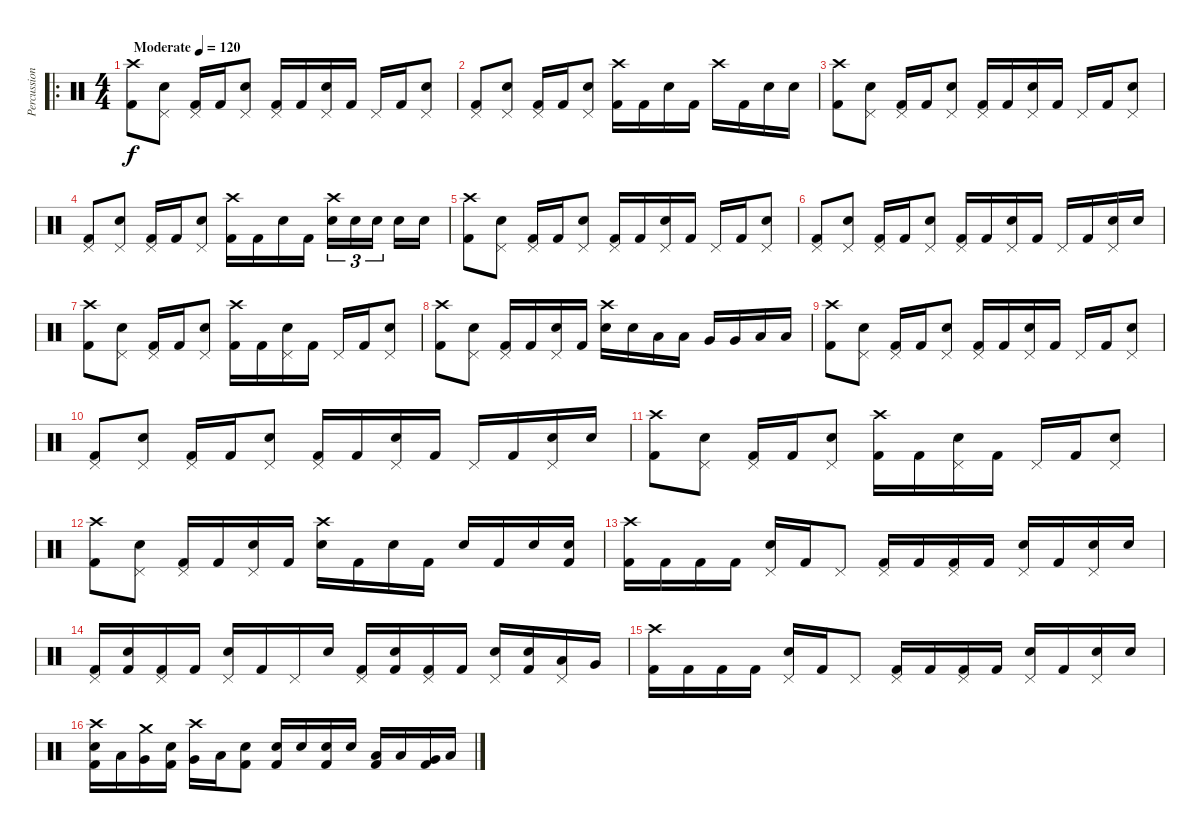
\track ("Percussion" "Percussion") {instrument percussion}
\staff {score}
\articulation defaults
\ro
\ts (4 4)
\tempo (120 "Moderate")
\clef neutral
\ks c
("Crash high (hit)" "Kick (hit) 2").8{dy f} ("Pedal Hi-Hat (hit)" "Electric Snare (hit)").8 ("Pedal Hi-Hat (hit)" "Kick (hit) 2").16 "Kick (hit) 2".16 ("Pedal Hi-Hat (hit)" "Electric Snare (hit)").8 ("Pedal Hi-Hat (hit)" "Kick (hit) 2").16 "Kick (hit) 2".16 ("Pedal Hi-Hat (hit)" "Electric Snare (hit)").16 "Kick (hit) 2".16 "Pedal Hi-Hat (hit)".16 "Kick (hit) 2".16 ("Pedal Hi-Hat (hit)" "Electric Snare (hit)").8 |
("Pedal Hi-Hat (hit)" "Kick (hit) 2").8 ("Pedal Hi-Hat (hit)" "Electric Snare (hit)").8 ("Pedal Hi-Hat (hit)" "Kick (hit) 2").16 "Kick (hit) 2".16 ("Pedal Hi-Hat (hit)" "Electric Snare (hit)").8 ("Crash high (hit)" "Kick (hit) 2").16 "Kick (hit) 2".16 "Electric Snare (hit)".16 "Kick (hit) 2".16 "Crash high (hit)".16 "Kick (hit) 2".16 "Electric Snare (hit)".16 "Electric Snare (hit)".16 |
("Crash high (hit)" "Kick (hit) 2").8 ("Pedal Hi-Hat (hit)" "Electric Snare (hit)").8 ("Pedal Hi-Hat (hit)" "Kick (hit) 2").16 "Kick (hit) 2".16 ("Pedal Hi-Hat (hit)" "Electric Snare (hit)").8 ("Pedal Hi-Hat (hit)" "Kick (hit) 2").16 "Kick (hit) 2".16 ("Pedal Hi-Hat (hit)" "Electric Snare (hit)").16 "Kick (hit) 2".16 "Pedal Hi-Hat (hit)".16 "Kick (hit) 2".16 ("Pedal Hi-Hat (hit)" "Electric Snare (hit)").8 |
("Pedal Hi-Hat (hit)" "Kick (hit) 2").8 ("Pedal Hi-Hat (hit)" "Electric Snare (hit)").8 ("Pedal Hi-Hat (hit)" "Kick (hit) 2").16 "Kick (hit) 2".16 ("Pedal Hi-Hat (hit)" "Electric Snare (hit)").8 ("Crash high (hit)" "Kick (hit) 2").16 "Kick (hit) 2".16 "Electric Snare (hit)".16 "Kick (hit) 2".16 ("Crash high (hit)" "Electric Snare (hit)").16{tu (3 2)} "Electric Snare (hit)".16{tu (3 2)} "Electric Snare (hit)".16{tu (3 2) beam splitsecondary} "Electric Snare (hit)".16 "Electric Snare (hit)".16 |
("Crash high (hit)" "Kick (hit) 2").8 ("Pedal Hi-Hat (hit)" "Electric Snare (hit)").8 ("Pedal Hi-Hat (hit)" "Kick (hit) 2").16 "Kick (hit) 2".16 ("Pedal Hi-Hat (hit)" "Electric Snare (hit)").8 ("Pedal Hi-Hat (hit)" "Kick (hit) 2").16 "Kick (hit) 2".16 ("Pedal Hi-Hat (hit)" "Electric Snare (hit)").16 "Kick (hit) 2".16 "Pedal Hi-Hat (hit)".16 "Kick (hit) 2".16 ("Pedal Hi-Hat (hit)" "Electric Snare (hit)").8 |
("Pedal Hi-Hat (hit)" "Kick (hit) 2").8 ("Pedal Hi-Hat (hit)" "Electric Snare (hit)").8 ("Pedal Hi-Hat (hit)" "Kick (hit) 2").16 "Kick (hit) 2".16 ("Pedal Hi-Hat (hit)" "Electric Snare (hit)").8 ("Pedal Hi-Hat (hit)" "Kick (hit) 2").16 "Kick (hit) 2".16 ("Pedal Hi-Hat (hit)" "Electric Snare (hit)").16 "Kick (hit) 2".16 "Pedal Hi-Hat (hit)".16 "Kick (hit) 2".16 ("Pedal Hi-Hat (hit)" "Electric Snare (hit)").16 "Electric Snare (hit)".16 |
("Crash high (hit)" "Kick (hit) 2").8 ("Pedal Hi-Hat (hit)" "Electric Snare (hit)").8 ("Pedal Hi-Hat (hit)" "Kick (hit) 2").16 "Kick (hit) 2".16 ("Pedal Hi-Hat (hit)" "Electric Snare (hit)").8 ("Crash high (hit)" "Kick (hit) 2").16 "Kick (hit) 2".16 ("Pedal Hi-Hat (hit)" "Electric Snare (hit)").16 "Kick (hit) 2".16 "Pedal Hi-Hat (hit)".16 "Kick (hit) 2".16 ("Pedal Hi-Hat (hit)" "Electric Snare (hit)").8 |
("Crash high (hit)" "Kick (hit) 2").8 ("Pedal Hi-Hat (hit)" "Electric Snare (hit)").8 ("Pedal Hi-Hat (hit)" "Kick (hit) 2").16 "Kick (hit) 2".16 ("Pedal Hi-Hat (hit)" "Electric Snare (hit)").16 "Kick (hit) 2".16 ("Crash high (hit)" "Electric Snare (hit)").16 "Electric Snare (hit)".16 "Low Tom (hit)".16 "Low Tom (hit)".16 "Very Low Tom (hit)".16 "Very Low Tom (hit)".16 "Low Floor Tom (hit)".16 "Low Floor Tom (hit)".16 |
("Crash high (hit)" "Kick (hit) 2").8 ("Pedal Hi-Hat (hit)" "Electric Snare (hit)").8 ("Pedal Hi-Hat (hit)" "Kick (hit) 2").16 "Kick (hit) 2".16 ("Pedal Hi-Hat (hit)" "Electric Snare (hit)").8 ("Pedal Hi-Hat (hit)" "Kick (hit) 2").16 "Kick (hit) 2".16 ("Pedal Hi-Hat (hit)" "Electric Snare (hit)").16 "Kick (hit) 2".16 "Pedal Hi-Hat (hit)".16 "Kick (hit) 2".16 ("Pedal Hi-Hat (hit)" "Electric Snare (hit)").8 |
("Pedal Hi-Hat (hit)" "Kick (hit) 2").8 ("Pedal Hi-Hat (hit)" "Electric Snare (hit)").8 ("Pedal Hi-Hat (hit)" "Kick (hit) 2").16 "Kick (hit) 2".16 ("Pedal Hi-Hat (hit)" "Electric Snare (hit)").8 ("Pedal Hi-Hat (hit)" "Kick (hit) 2").16 "Kick (hit) 2".16 ("Pedal Hi-Hat (hit)" "Electric Snare (hit)").16 "Kick (hit) 2".16 "Pedal Hi-Hat (hit)".16 "Kick (hit) 2".16 ("Pedal Hi-Hat (hit)" "Electric Snare (hit)").16 "Electric Snare (hit)".16 |
("Crash high (hit)" "Kick (hit) 2").8 ("Pedal Hi-Hat (hit)" "Electric Snare (hit)").8 ("Pedal Hi-Hat (hit)" "Kick (hit) 2").16 "Kick (hit) 2".16 ("Pedal Hi-Hat (hit)" "Electric Snare (hit)").8 ("Crash high (hit)" "Kick (hit) 2").16 "Kick (hit) 2".16 ("Pedal Hi-Hat (hit)" "Electric Snare (hit)").16 "Kick (hit) 2".16 "Pedal Hi-Hat (hit)".16 "Kick (hit) 2".16 ("Pedal Hi-Hat (hit)" "Electric Snare (hit)").8 |
("Crash high (hit)" "Kick (hit) 2").8 ("Pedal Hi-Hat (hit)" "Electric Snare (hit)").8 ("Pedal Hi-Hat (hit)" "Kick (hit) 2").16 "Kick (hit) 2".16 ("Pedal Hi-Hat (hit)" "Electric Snare (hit)").16 "Kick (hit) 2".16 ("Crash high (hit)" "Electric Snare (hit)").16 "Kick (hit) 2".16 "Electric Snare (hit)".16 "Kick (hit) 2".16 "Electric Snare (hit)".16 "Kick (hit) 2".16 "Electric Snare (hit)".16 ("Electric Snare (hit)" "Kick (hit) 2").16 |
("Crash high (hit)" "Kick (hit) 2").16 "Kick (hit) 2".16 "Kick (hit) 2".16 "Kick (hit) 2".16 ("Pedal Hi-Hat (hit)" "Electric Snare (hit)").16 "Kick (hit) 2".16 "Pedal Hi-Hat (hit)".8 ("Pedal Hi-Hat (hit)" "Kick (hit) 2").16 "Kick (hit) 2".16 ("Pedal Hi-Hat (hit)" "Kick (hit) 2").16 "Kick (hit) 2".16 ("Pedal Hi-Hat (hit)" "Electric Snare (hit)").16 "Kick (hit) 2".16 ("Pedal Hi-Hat (hit)" "Electric Snare (hit)").16 "Electric Snare (hit)".16 |
("Pedal Hi-Hat (hit)" "Kick (hit) 2").16 ("Electric Snare (hit)" "Kick (hit) 2").16 ("Pedal Hi-Hat (hit)" "Kick (hit) 2").16 "Kick (hit) 2".16 ("Pedal Hi-Hat (hit)" "Electric Snare (hit)").16 "Kick (hit) 2".16 "Pedal Hi-Hat (hit)".16 "Electric Snare (hit)".16 ("Pedal Hi-Hat (hit)" "Kick (hit) 2").16 ("Electric Snare (hit)" "Kick (hit) 2").16 ("Pedal Hi-Hat (hit)" "Kick (hit) 2").16 "Kick (hit) 2".16 ("Pedal Hi-Hat (hit)" "Electric Snare (hit)").16 ("Electric Snare (hit)" "Kick (hit) 2").16 ("Pedal Hi-Hat (hit)" "Low Tom (hit)").16 "Very Low Tom (hit)".16 |
("Crash high (hit)" "Kick (hit) 2").16 "Kick (hit) 2".16 "Kick (hit) 2".16 "Kick (hit) 2".16 ("Pedal Hi-Hat (hit)" "Electric Snare (hit)").16 "Kick (hit) 2".16 "Pedal Hi-Hat (hit)".8 ("Pedal Hi-Hat (hit)" "Kick (hit) 2").16 "Kick (hit) 2".16 ("Pedal Hi-Hat (hit)" "Kick (hit) 2").16 "Kick (hit) 2".16 ("Pedal Hi-Hat (hit)" "Electric Snare (hit)").16 "Kick (hit) 2".16 ("Pedal Hi-Hat (hit)" "Electric Snare (hit)").16 "Electric Snare (hit)".16 |
("Crash high (hit)" "Electric Snare (hit)" "Kick (hit) 2").16 "Low Tom (hit)".16 ("Crash medium (hit)" "Very Low Tom (hit)").16 ("Electric Snare (hit)" "Kick (hit) 2").16 ("Crash high (hit)" "Very Low Tom (hit)").16 "Low Floor Tom (hit)".16 ("Electric Snare (hit)" "Kick (hit) 2").8 ("Electric Snare (hit)" "Kick (hit) 2").16 "Electric Snare (hit)".16 ("Electric Snare (hit)" "Kick (hit) 2").16 "Electric Snare (hit)".16 ("Low Tom (hit)" "Kick (hit) 2").16 "Low Tom (hit)".16 ("Very Low Tom (hit)" "Kick (hit) 2").16 "Low Floor Tom (hit)".16
